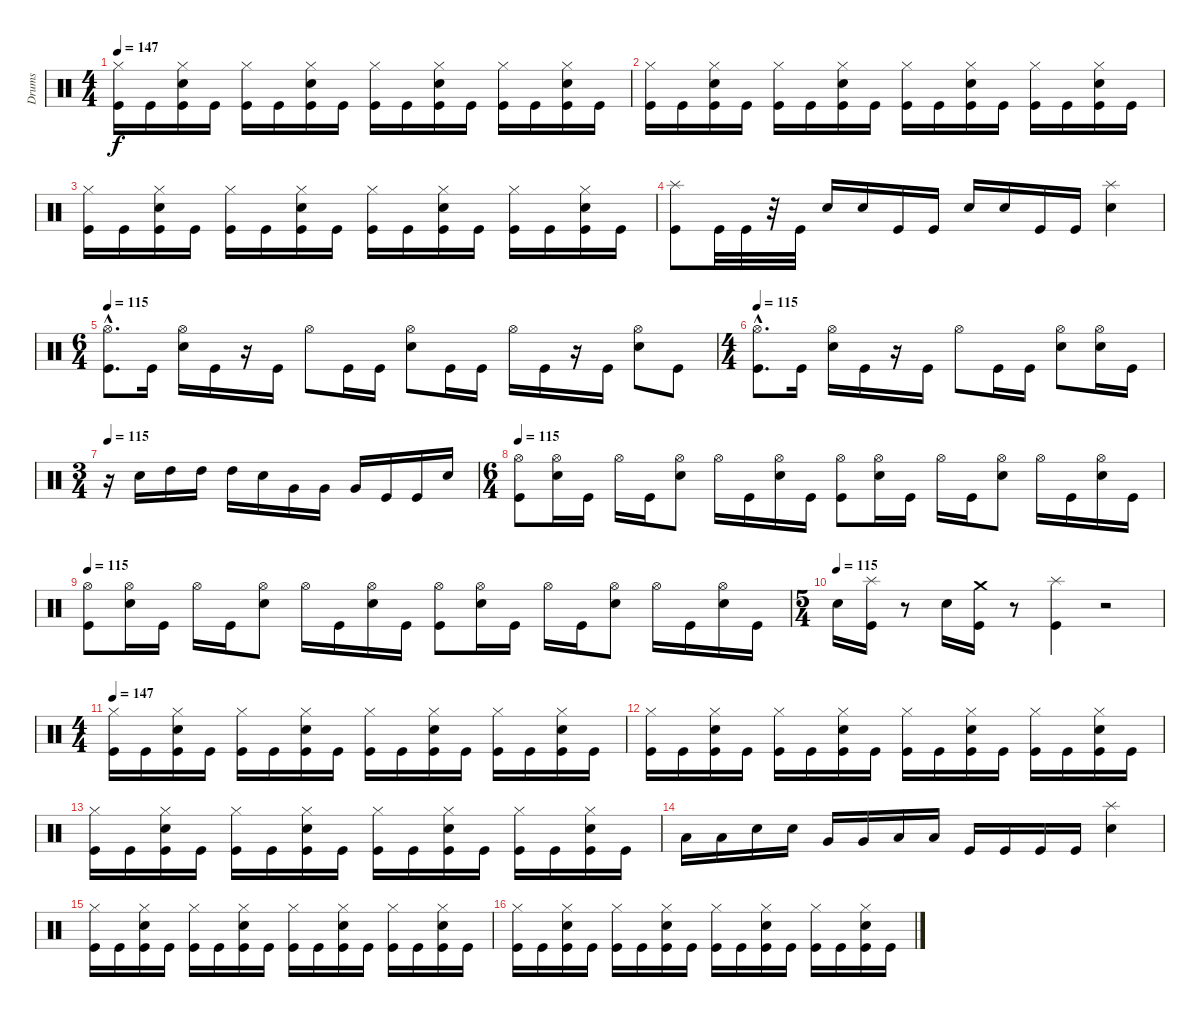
\track ("Drums" "Drums") {instrument percussion}
\staff {score}
\articulation defaults
\ts (4 4)
\tempo 147
\clef neutral
\ks c
("Kick (hit)" "Hi-Hat (closed)").16{dy f} "Kick (hit)".16 ("Hi-Hat (closed)" "Snare (hit) 2" "Kick (hit)").16 "Kick (hit)".16 ("Hi-Hat (closed)" "Kick (hit)").16 "Kick (hit)".16 ("Snare (hit) 2" "Kick (hit)" "Hi-Hat (closed)").16 "Kick (hit)".16 ("Kick (hit)" "Hi-Hat (closed)").16 "Kick (hit)".16 ("Kick (hit)" "Snare (hit) 2" "Hi-Hat (closed)").16 "Kick (hit)".16 ("Kick (hit)" "Hi-Hat (closed)").16 "Kick (hit)".16 ("Kick (hit)" "Hi-Hat (closed)" "Snare (hit) 2").16 "Kick (hit)".16 |
("Kick (hit)" "Hi-Hat (closed)").16 "Kick (hit)".16 ("Hi-Hat (closed)" "Kick (hit)" "Snare (hit) 2").16 "Kick (hit)".16 ("Kick (hit)" "Hi-Hat (closed)").16 "Kick (hit)".16 ("Kick (hit)" "Hi-Hat (closed)" "Snare (hit) 2").16 "Kick (hit)".16 ("Kick (hit)" "Hi-Hat (closed)").16 "Kick (hit)".16 ("Hi-Hat (closed)" "Snare (hit) 2" "Kick (hit)").16 "Kick (hit)".16 ("Kick (hit)" "Hi-Hat (closed)").16 "Kick (hit)".16 ("Kick (hit)" "Hi-Hat (closed)" "Snare (hit) 2").16 "Kick (hit)".16 |
("Hi-Hat (closed)" "Kick (hit)").16 "Kick (hit)".16 ("Hi-Hat (closed)" "Kick (hit)" "Snare (hit) 2").16 "Kick (hit)".16 ("Hi-Hat (closed)" "Kick (hit)").16 "Kick (hit)".16 ("Kick (hit)" "Hi-Hat (closed)" "Snare (hit) 2").16 "Kick (hit)".16 ("Kick (hit)" "Hi-Hat (closed)").16 "Kick (hit)".16 ("Snare (hit) 2" "Hi-Hat (closed)" "Kick (hit)").16 "Kick (hit)".16 ("Kick (hit)" "Hi-Hat (closed)").16 "Kick (hit)".16 ("Hi-Hat (closed)" "Kick (hit)" "Snare (hit) 2").16 "Kick (hit)".16 |
("Kick (hit)" "Splash (hit)").8 "Kick (hit)".32 "Kick (hit)".32 r.32 "Kick (hit)".32 "Snare (hit) 2".16 "Snare (hit) 2".16 "Kick (hit)".16 "Kick (hit)".16 "Snare (hit) 2".16 "Snare (hit) 2".16 "Kick (hit)".16 "Kick (hit)".16 ("Snare (hit) 2" "Splash (hit)").4 |
\ts (6 4)
\tempo 115
("Hi-Hat (open)" "Kick (hit)"{hac}).8{d} "Kick (hit)".16 ("Hi-Hat (open)" "Snare (hit) 2").16 "Kick (hit)".16 r.16 "Kick (hit)".16 "Hi-Hat (open)".8 "Kick (hit)".16 "Kick (hit)".16 ("Hi-Hat (open)" "Snare (hit) 2").8 "Kick (hit)".16 "Kick (hit)".16 "Hi-Hat (open)".16 "Kick (hit)".16 r.16 "Kick (hit)".16 ("Hi-Hat (open)" "Snare (hit) 2").8 "Kick (hit)".8 |
\ts (4 4)
\tempo 115
("Hi-Hat (open)" "Kick (hit)"{hac}).8{d} "Kick (hit)".16 ("Hi-Hat (open)" "Snare (hit) 2").16 "Kick (hit)".16 r.16 "Kick (hit)".16 "Hi-Hat (open)".8 "Kick (hit)".16 "Kick (hit)".16 ("Snare (hit) 2" "Hi-Hat (open)").8 ("Hi-Hat (open)" "Snare (hit) 2").16 "Kick (hit)".16 |
\ts (3 4)
\tempo 115
r.16 "Snare (hit) 2".16 "High Tom (hit)".16 "High Tom (hit)".16 "High Tom (hit)".16 "Snare (hit) 2".16 "Very Low Tom (hit)".16 "Very Low Tom (hit)".16 "Very Low Tom (hit)".16 "Kick (hit)".16 "Kick (hit)".16 "Snare (hit) 2".16 |
\ts (6 4)
\tempo 115
("Hi-Hat (open)" "Kick (hit)").8 ("Hi-Hat (open)" "Snare (hit) 2").16 "Kick (hit)".16 "Hi-Hat (open)".16 "Kick (hit)".16 ("Hi-Hat (open)" "Snare (hit) 2").8 "Hi-Hat (open)".16 "Kick (hit)".16 ("Snare (hit) 2" "Hi-Hat (open)").16 "Kick (hit)".16 ("Hi-Hat (open)" "Kick (hit)").8 ("Snare (hit) 2" "Hi-Hat (open)").16 "Kick (hit)".16 "Hi-Hat (open)".16 "Kick (hit)".16 ("Hi-Hat (open)" "Snare (hit) 2").8 "Hi-Hat (open)".16 "Kick (hit)".16 ("Hi-Hat (open)" "Snare (hit) 2").16 "Kick (hit)".16 |
\tempo 115
("Kick (hit)" "Hi-Hat (open)").8 ("Hi-Hat (open)" "Snare (hit) 2").16 "Kick (hit)".16 "Hi-Hat (open)".16 "Kick (hit)".16 ("Hi-Hat (open)" "Snare (hit) 2").8 "Hi-Hat (open)".16 "Kick (hit)".16 ("Snare (hit) 2" "Hi-Hat (open)").16 "Kick (hit)".16 ("Kick (hit)" "Hi-Hat (open)").8 ("Hi-Hat (open)" "Snare (hit) 2").16 "Kick (hit)".16 "Hi-Hat (open)".16 "Kick (hit)".16 ("Snare (hit) 2" "Hi-Hat (open)").8 "Hi-Hat (open)".16 "Kick (hit)".16 ("Hi-Hat (open)" "Snare (hit) 2").16 "Kick (hit)".16 |
\ts (5 4)
\tempo (115)
"Snare (hit) 2".16 ("Kick (hit)" "Splash (hit)").16 r.8 "Snare (hit) 2".16 ("Kick (hit)" "Crash medium (hit)").16 r.8 ("Splash (hit)" "Kick (hit)").4 r.2 |
\ts (4 4)
\tempo 147
("Kick (hit)" "Hi-Hat (closed)").16 "Kick (hit)".16 ("Snare (hit) 2" "Hi-Hat (closed)" "Kick (hit)").16 "Kick (hit)".16 ("Hi-Hat (closed)" "Kick (hit)").16 "Kick (hit)".16 ("Hi-Hat (closed)" "Snare (hit) 2" "Kick (hit)").16 "Kick (hit)".16 ("Hi-Hat (closed)" "Kick (hit)").16 "Kick (hit)".16 ("Snare (hit) 2" "Kick (hit)" "Hi-Hat (closed)").16 "Kick (hit)".16 ("Kick (hit)" "Hi-Hat (closed)").16 "Kick (hit)".16 ("Snare (hit) 2" "Hi-Hat (closed)" "Kick (hit)").16 "Kick (hit)".16 |
("Hi-Hat (closed)" "Kick (hit)").16 "Kick (hit)".16 ("Hi-Hat (closed)" "Kick (hit)" "Snare (hit) 2").16 "Kick (hit)".16 ("Kick (hit)" "Hi-Hat (closed)").16 "Kick (hit)".16 ("Snare (hit) 2" "Hi-Hat (closed)" "Kick (hit)").16 "Kick (hit)".16 ("Hi-Hat (closed)" "Kick (hit)").16 "Kick (hit)".16 ("Kick (hit)" "Snare (hit) 2" "Hi-Hat (closed)").16 "Kick (hit)".16 ("Hi-Hat (closed)" "Kick (hit)").16 "Kick (hit)".16 ("Hi-Hat (closed)" "Kick (hit)" "Snare (hit) 2").16 "Kick (hit)".16 |
("Hi-Hat (closed)" "Kick (hit)").16 "Kick (hit)".16 ("Snare (hit) 2" "Kick (hit)" "Hi-Hat (closed)").16 "Kick (hit)".16 ("Hi-Hat (closed)" "Kick (hit)").16 "Kick (hit)".16 ("Kick (hit)" "Snare (hit) 2" "Hi-Hat (closed)").16 "Kick (hit)".16 ("Kick (hit)" "Hi-Hat (closed)").16 "Kick (hit)".16 ("Kick (hit)" "Hi-Hat (closed)" "Snare (hit) 2").16 "Kick (hit)".16 ("Kick (hit)" "Hi-Hat (closed)").16 "Kick (hit)".16 ("Kick (hit)" "Hi-Hat (closed)" "Snare (hit) 2").16 "Kick (hit)".16 |
"Low Floor Tom (hit)".16 "Low Floor Tom (hit)".16 "Snare (hit) 2".16 "Snare (hit) 2".16 "Very Low Tom (hit)".16 "Very Low Tom (hit)".16 "Low Floor Tom (hit)".16 "Low Floor Tom (hit)".16 "Kick (hit)".16 "Kick (hit)".16 "Kick (hit)".16 "Kick (hit)".16 ("Splash (hit)" "Snare (hit) 2").4 |
("Hi-Hat (closed)" "Kick (hit)").16 "Kick (hit)".16 ("Kick (hit)" "Snare (hit) 2" "Hi-Hat (closed)").16 "Kick (hit)".16 ("Hi-Hat (closed)" "Kick (hit)").16 "Kick (hit)".16 ("Hi-Hat (closed)" "Snare (hit) 2" "Kick (hit)").16 "Kick (hit)".16 ("Hi-Hat (closed)" "Kick (hit)").16 "Kick (hit)".16 ("Kick (hit)" "Snare (hit) 2" "Hi-Hat (closed)").16 "Kick (hit)".16 ("Hi-Hat (closed)" "Kick (hit)").16 "Kick (hit)".16 ("Hi-Hat (closed)" "Snare (hit) 2" "Kick (hit)").16 "Kick (hit)".16 |
("Kick (hit)" "Hi-Hat (closed)").16 "Kick (hit)".16 ("Snare (hit) 2" "Kick (hit)" "Hi-Hat (closed)").16 "Kick (hit)".16 ("Hi-Hat (closed)" "Kick (hit)").16 "Kick (hit)".16 ("Kick (hit)" "Snare (hit) 2" "Hi-Hat (closed)").16 "Kick (hit)".16 ("Hi-Hat (closed)" "Kick (hit)").16 "Kick (hit)".16 ("Hi-Hat (closed)" "Snare (hit) 2" "Kick (hit)").16 "Kick (hit)".16 ("Kick (hit)" "Hi-Hat (closed)").16 "Kick (hit)".16 ("Snare (hit) 2" "Hi-Hat (closed)" "Kick (hit)").16 "Kick (hit)".16
